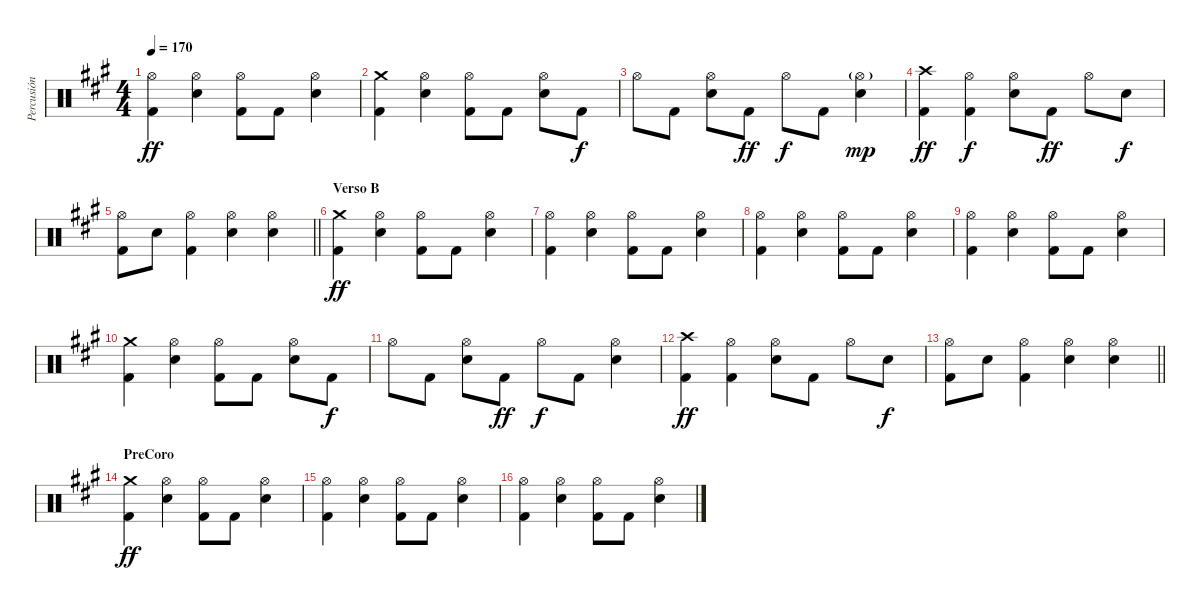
\track ("Percusión" "Percusión") {instrument percussion}
\staff {score}
\articulation defaults
\ts (4 4)
\tempo 170
\clef neutral
\ks a
("Hi-Hat (open)" "Kick (hit) 2").4{dy ff} ("Hi-Hat (open)" "Electric Snare (hit)").4 ("Hi-Hat (open)" "Kick (hit) 2").8 "Kick (hit) 2".8 ("Hi-Hat (open)" "Electric Snare (hit)").4 |
("Crash medium (hit)" "Kick (hit) 2").4 ("Hi-Hat (open)" "Electric Snare (hit)").4 ("Hi-Hat (open)" "Kick (hit) 2").8 "Kick (hit) 2".8 ("Hi-Hat (open)" "Electric Snare (hit)").8 "Kick (hit) 2".8{dy f} |
"Hi-Hat (open)".8 "Kick (hit) 2".8 ("Hi-Hat (open)" "Electric Snare (hit)").8 "Kick (hit) 2".8{dy ff} "Hi-Hat (open)".8{dy f} "Kick (hit) 2".8 ("Hi-Hat (open)"{g} "Electric Snare (hit)").4{dy mp} |
("Crash high (hit)" "Kick (hit) 2").4{dy ff} ("Hi-Hat (open)" "Kick (hit) 2").4{dy f} ("Hi-Hat (open)" "Electric Snare (hit)").8 "Kick (hit) 2".8{dy ff} "Hi-Hat (open)".8 "Electric Snare (hit)".8{dy f} |
\barLineRight lightlight
("Hi-Hat (open)" "Kick (hit) 2").8 "Electric Snare (hit)".8 ("Hi-Hat (open)" "Kick (hit) 2").4 ("Hi-Hat (open)" "Electric Snare (hit)").4 ("Hi-Hat (open)" "Electric Snare (hit)").4 |
\section ("" "Verso B")
("Crash medium (hit)" "Kick (hit) 2").4{dy ff} ("Hi-Hat (open)" "Electric Snare (hit)").4 ("Hi-Hat (open)" "Kick (hit) 2").8 "Kick (hit) 2".8 ("Hi-Hat (open)" "Electric Snare (hit)").4 |
("Hi-Hat (open)" "Kick (hit) 2").4 ("Hi-Hat (open)" "Electric Snare (hit)").4 ("Hi-Hat (open)" "Kick (hit) 2").8 "Kick (hit) 2".8 ("Hi-Hat (open)" "Electric Snare (hit)").4 |
("Hi-Hat (open)" "Kick (hit) 2").4 ("Hi-Hat (open)" "Electric Snare (hit)").4 ("Hi-Hat (open)" "Kick (hit) 2").8 "Kick (hit) 2".8 ("Hi-Hat (open)" "Electric Snare (hit)").4 |
("Hi-Hat (open)" "Kick (hit) 2").4 ("Hi-Hat (open)" "Electric Snare (hit)").4 ("Hi-Hat (open)" "Kick (hit) 2").8 "Kick (hit) 2".8 ("Hi-Hat (open)" "Electric Snare (hit)").4 |
("Crash medium (hit)" "Kick (hit) 2").4 ("Hi-Hat (open)" "Electric Snare (hit)").4 ("Hi-Hat (open)" "Kick (hit) 2").8 "Kick (hit) 2".8 ("Hi-Hat (open)" "Electric Snare (hit)").8 "Kick (hit) 2".8{dy f} |
"Hi-Hat (open)".8 "Kick (hit) 2".8 ("Hi-Hat (open)" "Electric Snare (hit)").8 "Kick (hit) 2".8{dy ff} "Hi-Hat (open)".8{dy f} "Kick (hit) 2".8 ("Hi-Hat (open)" "Electric Snare (hit)").4 |
("Crash high (hit)" "Kick (hit) 2").4{dy ff} ("Hi-Hat (open)" "Kick (hit) 2").4 ("Hi-Hat (open)" "Electric Snare (hit)").8 "Kick (hit) 2".8 "Hi-Hat (open)".8 "Electric Snare (hit)".8{dy f} |
\barLineRight lightlight
("Hi-Hat (open)" "Kick (hit) 2").8 "Electric Snare (hit)".8 ("Hi-Hat (open)" "Kick (hit) 2").4 ("Hi-Hat (open)" "Electric Snare (hit)").4 ("Hi-Hat (open)" "Electric Snare (hit)").4 |
\section ("" "PreCoro")
("Crash medium (hit)" "Kick (hit) 2").4{dy ff} ("Hi-Hat (open)" "Electric Snare (hit)").4 ("Hi-Hat (open)" "Kick (hit) 2").8 "Kick (hit) 2".8 ("Hi-Hat (open)" "Electric Snare (hit)").4 |
("Hi-Hat (open)" "Kick (hit) 2").4 ("Hi-Hat (open)" "Electric Snare (hit)").4 ("Hi-Hat (open)" "Kick (hit) 2").8 "Kick (hit) 2".8 ("Hi-Hat (open)" "Electric Snare (hit)").4 |
("Hi-Hat (open)" "Kick (hit) 2").4 ("Hi-Hat (open)" "Electric Snare (hit)").4 ("Hi-Hat (open)" "Kick (hit) 2").8 "Kick (hit) 2".8 ("Hi-Hat (open)" "Electric Snare (hit)").4
